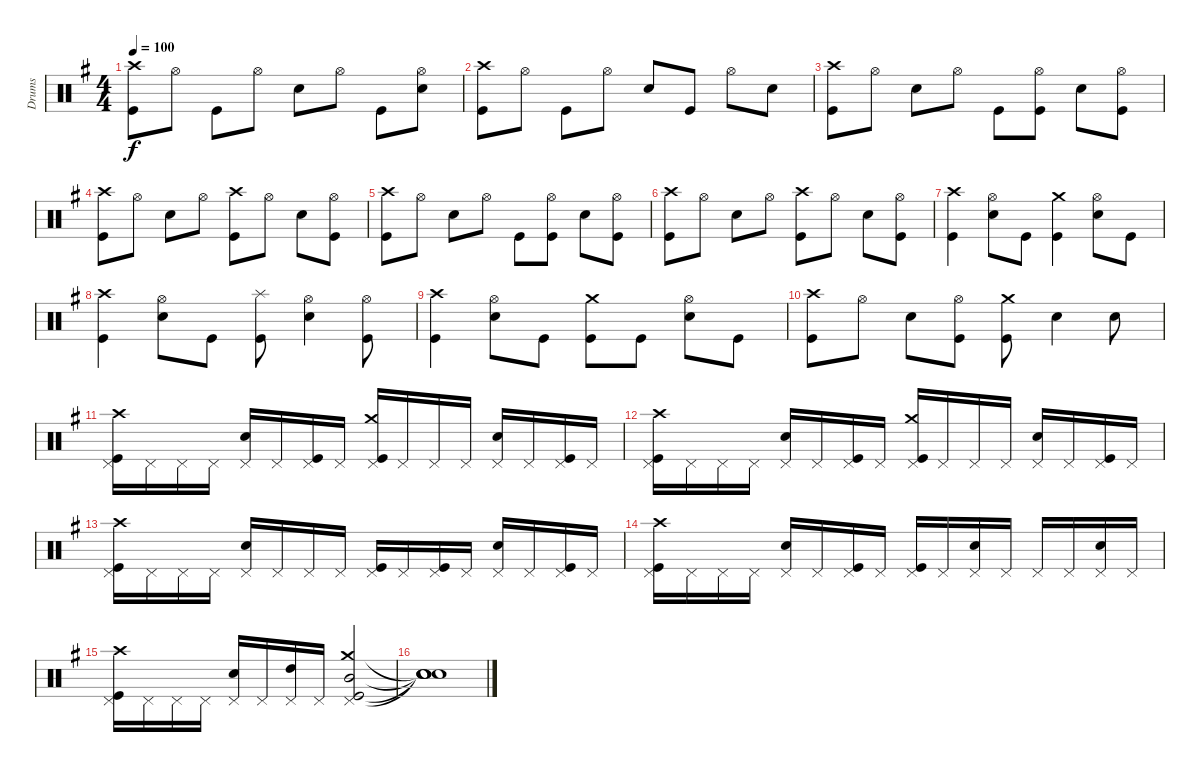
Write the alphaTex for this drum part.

\track ("Drums" "Drums") {instrument percussion}
\staff {score}
\articulation defaults
\ts (4 4)
\tempo 100
\clef neutral
\ks g
("Crash high (hit)" "Kick (hit)").8{dy f} "Hi-Hat (open)".8 "Kick (hit)".8 "Hi-Hat (open)".8 "Snare (hit) 2".8 "Hi-Hat (open)".8 "Kick (hit)".8 ("Hi-Hat (open)" "Snare (hit) 2").8 |
("Crash high (hit)" "Kick (hit)").8 "Hi-Hat (open)".8 "Kick (hit)".8 "Hi-Hat (open)".8 "Snare (hit) 2".8 "Kick (hit)".8 "Hi-Hat (open)".8 "Snare (hit) 2".8 |
("Crash high (hit)" "Kick (hit)").8 "Hi-Hat (open)".8 "Snare (hit) 2".8 "Hi-Hat (open)".8 "Kick (hit)".8 ("Hi-Hat (open)" "Kick (hit)").8 "Snare (hit) 2".8 ("Hi-Hat (open)" "Kick (hit)").8 |
("Crash high (hit)" "Kick (hit)").8 "Hi-Hat (open)".8 "Snare (hit) 2".8 "Hi-Hat (open)".8 ("Crash high (hit)" "Kick (hit)").8 "Hi-Hat (open)".8 "Snare (hit) 2".8 ("Hi-Hat (open)" "Kick (hit)").8 |
("Crash high (hit)" "Kick (hit)").8 "Hi-Hat (open)".8 "Snare (hit) 2".8 "Hi-Hat (open)".8 "Kick (hit)".8 ("Hi-Hat (open)" "Kick (hit)").8 "Snare (hit) 2".8 ("Hi-Hat (open)" "Kick (hit)").8 |
("Crash high (hit)" "Kick (hit)").8 "Hi-Hat (open)".8 "Snare (hit) 2".8 "Hi-Hat (open)".8 ("Crash high (hit)" "Kick (hit)").8 "Hi-Hat (open)".8 "Snare (hit) 2".8 ("Hi-Hat (open)" "Kick (hit)").8 |
("Crash high (hit)" "Kick (hit)").4 ("Hi-Hat (open)" "Snare (hit) 2").8 "Kick (hit)".8 ("Crash medium (hit)" "Kick (hit)").4 ("Hi-Hat (open)" "Snare (hit) 2").8 "Kick (hit)".8 |
("Crash high (hit)" "Kick (hit)").4 ("Hi-Hat (open)" "Snare (hit) 2").8 "Kick (hit)".8 ("Splash (hit)" "Kick (hit)").8 ("Hi-Hat (open)" "Snare (hit) 2").4 ("Hi-Hat (open)" "Kick (hit)").8 |
("Crash high (hit)" "Kick (hit)").4 ("Hi-Hat (open)" "Snare (hit) 2").8 "Kick (hit)".8 ("Crash medium (hit)" "Kick (hit)").8 "Kick (hit)".8 ("Hi-Hat (open)" "Snare (hit) 2").8 "Kick (hit)".8 |
("Crash high (hit)" "Kick (hit)").8 "Hi-Hat (open)".8 "Snare (hit) 2".8 ("Hi-Hat (open)" "Kick (hit)").8 ("Crash medium (hit)" "Kick (hit)").8 "Snare (hit) 2".4 "Snare (hit) 2".8 |
("Pedal Hi-Hat (hit)" "Crash high (hit)" "Kick (hit)").16 "Pedal Hi-Hat (hit)".16 "Pedal Hi-Hat (hit)".16 "Pedal Hi-Hat (hit)".16 ("Pedal Hi-Hat (hit)" "Snare (hit) 2").16 "Pedal Hi-Hat (hit)".16 ("Pedal Hi-Hat (hit)" "Kick (hit)").16 "Pedal Hi-Hat (hit)".16 ("Pedal Hi-Hat (hit)" "Crash medium (hit)" "Kick (hit)").16 "Pedal Hi-Hat (hit)".16 "Pedal Hi-Hat (hit)".16 "Pedal Hi-Hat (hit)".16 ("Pedal Hi-Hat (hit)" "Snare (hit) 2").16 "Pedal Hi-Hat (hit)".16 ("Pedal Hi-Hat (hit)" "Kick (hit)").16 "Pedal Hi-Hat (hit)".16 |
("Pedal Hi-Hat (hit)" "Crash high (hit)" "Kick (hit)").16 "Pedal Hi-Hat (hit)".16 "Pedal Hi-Hat (hit)".16 "Pedal Hi-Hat (hit)".16 ("Pedal Hi-Hat (hit)" "Snare (hit) 2").16 "Pedal Hi-Hat (hit)".16 ("Pedal Hi-Hat (hit)" "Kick (hit)").16 "Pedal Hi-Hat (hit)".16 ("Pedal Hi-Hat (hit)" "Crash medium (hit)" "Kick (hit)").16 "Pedal Hi-Hat (hit)".16 "Pedal Hi-Hat (hit)".16 "Pedal Hi-Hat (hit)".16 ("Pedal Hi-Hat (hit)" "Snare (hit) 2").16 "Pedal Hi-Hat (hit)".16 ("Pedal Hi-Hat (hit)" "Kick (hit)").16 "Pedal Hi-Hat (hit)".16 |
("Pedal Hi-Hat (hit)" "Crash high (hit)" "Kick (hit)").16 "Pedal Hi-Hat (hit)".16 "Pedal Hi-Hat (hit)".16 "Pedal Hi-Hat (hit)".16 ("Pedal Hi-Hat (hit)" "Snare (hit) 2").16 "Pedal Hi-Hat (hit)".16 "Pedal Hi-Hat (hit)".16 "Pedal Hi-Hat (hit)".16 ("Pedal Hi-Hat (hit)" "Kick (hit)").16 "Pedal Hi-Hat (hit)".16 ("Pedal Hi-Hat (hit)" "Kick (hit)").16 "Pedal Hi-Hat (hit)".16 ("Pedal Hi-Hat (hit)" "Snare (hit) 2").16 "Pedal Hi-Hat (hit)".16 ("Pedal Hi-Hat (hit)" "Kick (hit)").16 "Pedal Hi-Hat (hit)".16 |
("Pedal Hi-Hat (hit)" "Crash high (hit)" "Kick (hit)").16 "Pedal Hi-Hat (hit)".16 "Pedal Hi-Hat (hit)".16 "Pedal Hi-Hat (hit)".16 ("Pedal Hi-Hat (hit)" "Snare (hit) 2").16 "Pedal Hi-Hat (hit)".16 ("Pedal Hi-Hat (hit)" "Kick (hit)").16 "Pedal Hi-Hat (hit)".16 ("Pedal Hi-Hat (hit)" "Kick (hit)").16 "Pedal Hi-Hat (hit)".16 ("Pedal Hi-Hat (hit)" "Snare (hit) 2").16 "Pedal Hi-Hat (hit)".16 "Pedal Hi-Hat (hit)".16 "Pedal Hi-Hat (hit)".16 ("Pedal Hi-Hat (hit)" "Snare (hit) 2").16 "Pedal Hi-Hat (hit)".16 |
("Pedal Hi-Hat (hit)" "Crash high (hit)" "Kick (hit)").16 "Pedal Hi-Hat (hit)".16 "Pedal Hi-Hat (hit)".16 "Pedal Hi-Hat (hit)".16 ("Pedal Hi-Hat (hit)" "Snare (hit) 2").16 "Pedal Hi-Hat (hit)".16 ("Pedal Hi-Hat (hit)" "High Tom (hit)").16 "Pedal Hi-Hat (hit)".16 ("Pedal Hi-Hat (hit)" "Crash medium (hit)" "Mid Tom (hit)" "Kick (hit)").2 |
("Snare (hit)"{t} "Snare (hit)"{t} "Snare (hit)"{t} "Snare (hit)"{t}).1
